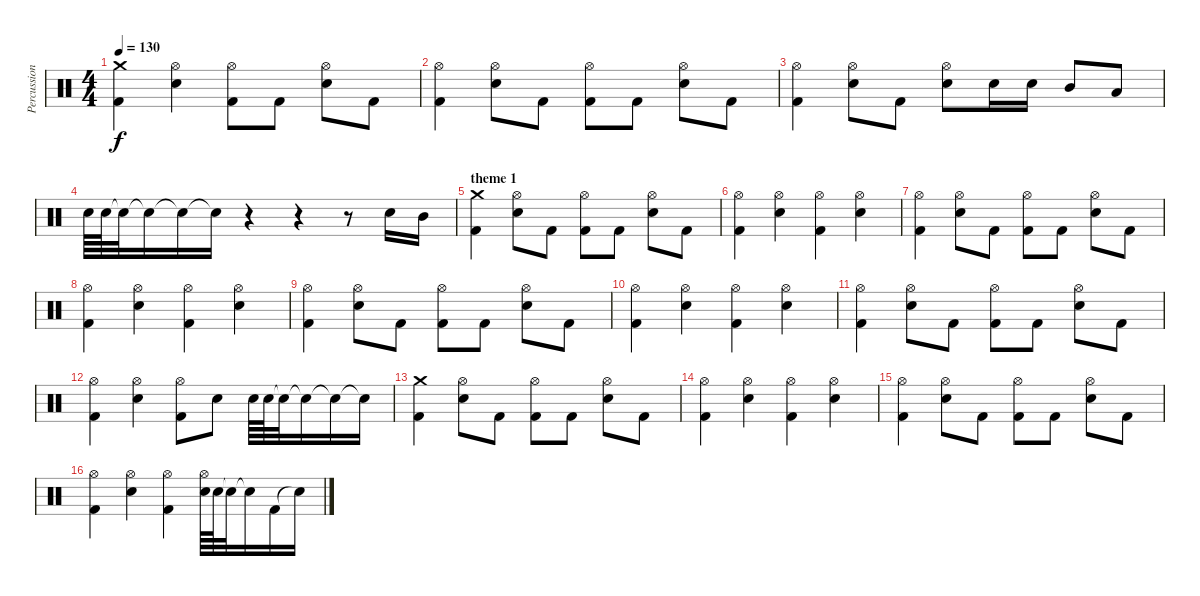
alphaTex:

\track ("Percussions" "Percussion") {instrument percussion}
\staff {score}
\articulation defaults
\ts (4 4)
\tempo 130
\clef neutral
\ks c
("Crash medium (hit)" "Kick (hit) 2").4{dy f} ("Hi-Hat (open)" "Electric Snare (hit)").4 ("Hi-Hat (open)" "Kick (hit) 2").8 "Kick (hit) 2".8 ("Hi-Hat (open)" "Electric Snare (hit)").8 "Kick (hit) 2".8 |
("Hi-Hat (open)" "Kick (hit) 2").4 ("Hi-Hat (open)" "Electric Snare (hit)").8 "Kick (hit) 2".8 ("Hi-Hat (open)" "Kick (hit) 2").8 "Kick (hit) 2".8 ("Hi-Hat (open)" "Electric Snare (hit)").8 "Kick (hit) 2".8 |
("Hi-Hat (open)" "Kick (hit) 2").4 ("Hi-Hat (open)" "Electric Snare (hit)").8 "Kick (hit) 2".8 ("Hi-Hat (open)" "Electric Snare (hit)").8 "Electric Snare (hit)".16 "Electric Snare (hit)".16 "Mid Tom (hit)".8 "Low Tom (hit)".8 |
"Electric Snare (hit)".64 "Electric Snare (hit)".64 "Snare (hit)"{t}.32 "Snare (hit)"{t}.16 "Snare (hit)"{t}.16 "Snare (hit)"{t}.16 r.4 r.4 r.8 "Electric Snare (hit)".16 "Mid Tom (hit)".16 |
\section ("" "theme 1")
("Crash medium (hit)" "Kick (hit) 2").4 ("Hi-Hat (open)" "Electric Snare (hit)").8 "Kick (hit) 2".8 ("Hi-Hat (open)" "Kick (hit) 2").8 "Kick (hit) 2".8 ("Hi-Hat (open)" "Electric Snare (hit)").8 "Kick (hit) 2".8 |
("Hi-Hat (open)" "Kick (hit) 2").4 ("Hi-Hat (open)" "Electric Snare (hit)").4 ("Hi-Hat (open)" "Kick (hit) 2").4 ("Hi-Hat (open)" "Electric Snare (hit)").4 |
("Hi-Hat (open)" "Kick (hit) 2").4 ("Hi-Hat (open)" "Electric Snare (hit)").8 "Kick (hit) 2".8 ("Hi-Hat (open)" "Kick (hit) 2").8 "Kick (hit) 2".8 ("Hi-Hat (open)" "Electric Snare (hit)").8 "Kick (hit) 2".8 |
("Hi-Hat (open)" "Kick (hit) 2").4 ("Hi-Hat (open)" "Electric Snare (hit)").4 ("Hi-Hat (open)" "Kick (hit) 2").4 ("Hi-Hat (open)" "Electric Snare (hit)").4 |
("Hi-Hat (open)" "Kick (hit) 2").4 ("Hi-Hat (open)" "Electric Snare (hit)").8 "Kick (hit) 2".8 ("Hi-Hat (open)" "Kick (hit) 2").8 "Kick (hit) 2".8 ("Hi-Hat (open)" "Electric Snare (hit)").8 "Kick (hit) 2".8 |
("Hi-Hat (open)" "Kick (hit) 2").4 ("Hi-Hat (open)" "Electric Snare (hit)").4 ("Hi-Hat (open)" "Kick (hit) 2").4 ("Hi-Hat (open)" "Electric Snare (hit)").4 |
("Hi-Hat (open)" "Kick (hit) 2").4 ("Hi-Hat (open)" "Electric Snare (hit)").8 "Kick (hit) 2".8 ("Hi-Hat (open)" "Kick (hit) 2").8 "Kick (hit) 2".8 ("Hi-Hat (open)" "Electric Snare (hit)").8 "Kick (hit) 2".8 |
("Hi-Hat (open)" "Kick (hit) 2").4 ("Hi-Hat (open)" "Electric Snare (hit)").4 ("Hi-Hat (open)" "Kick (hit) 2").8 "Electric Snare (hit)".8 "Electric Snare (hit)".64 "Electric Snare (hit)".64 "Snare (hit)"{t}.32 "Snare (hit)"{t}.16 "Snare (hit)"{t}.16 "Snare (hit)"{t}.16 |
("Crash medium (hit)" "Kick (hit) 2").4 ("Hi-Hat (open)" "Electric Snare (hit)").8 "Kick (hit) 2".8 ("Hi-Hat (open)" "Kick (hit) 2").8 "Kick (hit) 2".8 ("Hi-Hat (open)" "Electric Snare (hit)").8 "Kick (hit) 2".8 |
("Hi-Hat (open)" "Kick (hit) 2").4 ("Hi-Hat (open)" "Electric Snare (hit)").4 ("Hi-Hat (open)" "Kick (hit) 2").4 ("Hi-Hat (open)" "Electric Snare (hit)").4 |
("Hi-Hat (open)" "Kick (hit) 2").4 ("Hi-Hat (open)" "Electric Snare (hit)").8 "Kick (hit) 2".8 ("Hi-Hat (open)" "Kick (hit) 2").8 "Kick (hit) 2".8 ("Hi-Hat (open)" "Electric Snare (hit)").8 "Kick (hit) 2".8 |
("Hi-Hat (open)" "Kick (hit) 2").4 ("Hi-Hat (open)" "Electric Snare (hit)").4 ("Hi-Hat (open)" "Kick (hit) 2").4 ("Hi-Hat (open)" "Electric Snare (hit)").64 "Electric Snare (hit)".64 "Snare (hit)"{t}.32 "Snare (hit)"{t}.16 "Kick (hit) 2".16 "Snare (hit)"{t}.16
